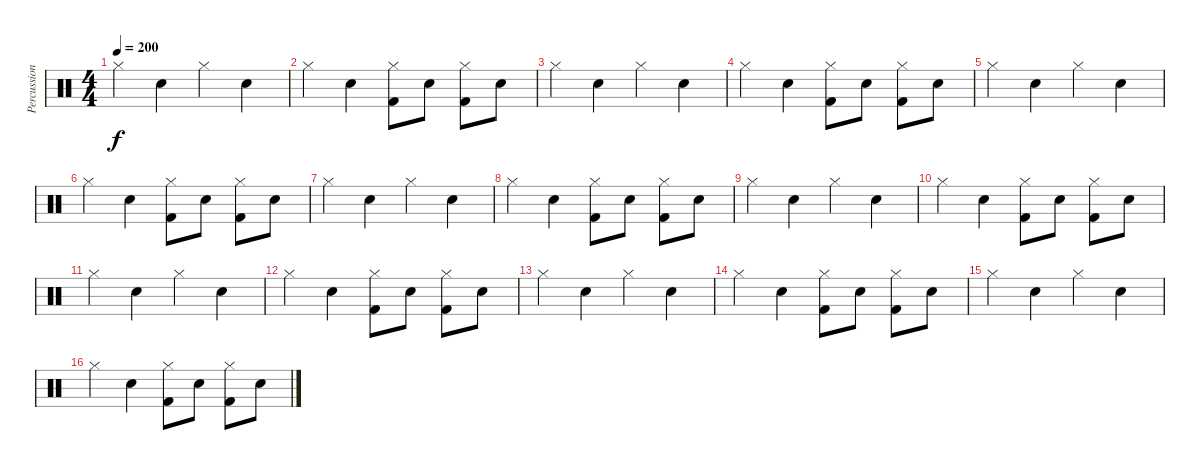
\track ("Percussion" "Percussion") {instrument percussion}
\staff {score}
\articulation defaults
\ts (4 4)
\tempo 200
\clef neutral
\ks c "Hi-Hat (closed)".4{dy f} "Snare (hit) 2".4 "Hi-Hat (closed)".4 "Snare (hit) 2".4
|
"Hi-Hat (closed)".4 "Snare (hit) 2".4 ("Kick (hit) 2" "Hi-Hat (closed)").8 "Snare (hit) 2".8 ("Kick (hit) 2" "Hi-Hat (closed)").8 "Snare (hit) 2".8 |
"Hi-Hat (closed)".4 "Snare (hit) 2".4 "Hi-Hat (closed)".4 "Snare (hit) 2".4 |
"Hi-Hat (closed)".4 "Snare (hit) 2".4 ("Kick (hit) 2" "Hi-Hat (closed)").8 "Snare (hit) 2".8 ("Kick (hit) 2" "Hi-Hat (closed)").8 "Snare (hit) 2".8 |
"Hi-Hat (closed)".4 "Snare (hit) 2".4 "Hi-Hat (closed)".4 "Snare (hit) 2".4 |
"Hi-Hat (closed)".4 "Snare (hit) 2".4 ("Kick (hit) 2" "Hi-Hat (closed)").8 "Snare (hit) 2".8 ("Kick (hit) 2" "Hi-Hat (closed)").8 "Snare (hit) 2".8 |
"Hi-Hat (closed)".4 "Snare (hit) 2".4 "Hi-Hat (closed)".4 "Snare (hit) 2".4 |
"Hi-Hat (closed)".4 "Snare (hit) 2".4 ("Kick (hit) 2" "Hi-Hat (closed)").8 "Snare (hit) 2".8 ("Kick (hit) 2" "Hi-Hat (closed)").8 "Snare (hit) 2".8 |
"Hi-Hat (closed)".4 "Snare (hit) 2".4 "Hi-Hat (closed)".4 "Snare (hit) 2".4 |
"Hi-Hat (closed)".4 "Snare (hit) 2".4 ("Kick (hit) 2" "Hi-Hat (closed)").8 "Snare (hit) 2".8 ("Kick (hit) 2" "Hi-Hat (closed)").8 "Snare (hit) 2".8 |
"Hi-Hat (closed)".4 "Snare (hit) 2".4 "Hi-Hat (closed)".4 "Snare (hit) 2".4 |
"Hi-Hat (closed)".4 "Snare (hit) 2".4 ("Kick (hit) 2" "Hi-Hat (closed)").8 "Snare (hit) 2".8 ("Kick (hit) 2" "Hi-Hat (closed)").8 "Snare (hit) 2".8 |
"Hi-Hat (closed)".4 "Snare (hit) 2".4 "Hi-Hat (closed)".4 "Snare (hit) 2".4 |
"Hi-Hat (closed)".4 "Snare (hit) 2".4 ("Kick (hit) 2" "Hi-Hat (closed)").8 "Snare (hit) 2".8 ("Kick (hit) 2" "Hi-Hat (closed)").8 "Snare (hit) 2".8 |
"Hi-Hat (closed)".4 "Snare (hit) 2".4 "Hi-Hat (closed)".4 "Snare (hit) 2".4 |
"Hi-Hat (closed)".4 "Snare (hit) 2".4 ("Kick (hit) 2" "Hi-Hat (closed)").8 "Snare (hit) 2".8 ("Kick (hit) 2" "Hi-Hat (closed)").8 "Snare (hit) 2".8
